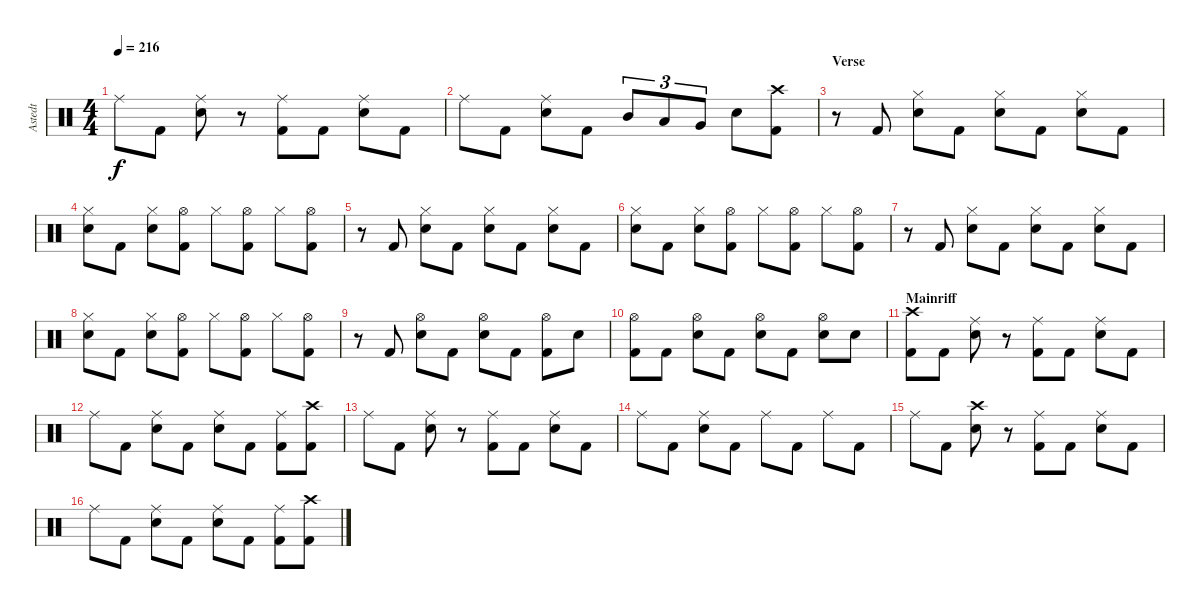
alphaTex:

\track ("Astedt" "Astedt") {instrument percussion}
\staff {score}
\articulation defaults
\ts (4 4)
\tempo 216
\clef neutral
\ks c "Ride (middle)".8{dy f} "Kick (hit) 2".8
("Ride (middle)" "Snare (hit) 2").8 r.8 ("Ride (middle)" "Kick (hit) 2").8 "Kick (hit) 2".8 ("Ride (middle)" "Snare (hit) 2").8 "Kick (hit) 2".8 |
"Ride (middle)".8 "Kick (hit) 2".8 ("Ride (middle)" "Snare (hit) 2").8 "Kick (hit) 2".8 "Mid Tom (hit)".8{tu (3 2)} "Low Tom (hit)".8{tu (3 2)} "Very Low Tom (hit)".8{tu (3 2)} "Snare (hit) 2".8 ("Crash high (hit)" "Kick (hit) 2").8 |
\section ("" "Verse")
r.8 "Kick (hit) 2".8 ("Hi-Hat (closed)" "Snare (hit) 2").8 "Kick (hit) 2".8 ("Hi-Hat (closed)" "Snare (hit) 2").8 "Kick (hit) 2".8 ("Hi-Hat (closed)" "Snare (hit) 2").8 "Kick (hit) 2".8 |
("Hi-Hat (closed)" "Snare (hit) 2").8 "Kick (hit) 2".8 ("Hi-Hat (closed)" "Snare (hit) 2").8 ("Hi-Hat (open)" "Kick (hit) 2").8 "Hi-Hat (closed)".8 ("Hi-Hat (open)" "Kick (hit) 2").8 "Hi-Hat (closed)".8 ("Hi-Hat (open)" "Kick (hit) 2").8 |
r.8 "Kick (hit) 2".8 ("Hi-Hat (closed)" "Snare (hit) 2").8 "Kick (hit) 2".8 ("Hi-Hat (closed)" "Snare (hit) 2").8 "Kick (hit) 2".8 ("Hi-Hat (closed)" "Snare (hit) 2").8 "Kick (hit) 2".8 |
("Hi-Hat (closed)" "Snare (hit) 2").8 "Kick (hit) 2".8 ("Hi-Hat (closed)" "Snare (hit) 2").8 ("Hi-Hat (open)" "Kick (hit) 2").8 "Hi-Hat (closed)".8 ("Hi-Hat (open)" "Kick (hit) 2").8 "Hi-Hat (closed)".8 ("Hi-Hat (open)" "Kick (hit) 2").8 |
r.8 "Kick (hit) 2".8 ("Hi-Hat (closed)" "Snare (hit) 2").8 "Kick (hit) 2".8 ("Hi-Hat (closed)" "Snare (hit) 2").8 "Kick (hit) 2".8 ("Hi-Hat (closed)" "Snare (hit) 2").8 "Kick (hit) 2".8 |
("Hi-Hat (closed)" "Snare (hit) 2").8 "Kick (hit) 2".8 ("Hi-Hat (closed)" "Snare (hit) 2").8 ("Hi-Hat (open)" "Kick (hit) 2").8 "Hi-Hat (closed)".8 ("Hi-Hat (open)" "Kick (hit) 2").8 "Hi-Hat (closed)".8 ("Hi-Hat (open)" "Kick (hit) 2").8 |
r.8 "Kick (hit) 2".8 ("Hi-Hat (open)" "Snare (hit) 2").8 "Kick (hit) 2".8 ("Hi-Hat (open)" "Snare (hit) 2").8 "Kick (hit) 2".8 ("Hi-Hat (open)" "Kick (hit) 2").8 "Snare (hit) 2".8 |
("Hi-Hat (open)" "Kick (hit) 2").8 "Kick (hit) 2".8 ("Hi-Hat (open)" "Snare (hit) 2").8 "Kick (hit) 2".8 ("Hi-Hat (open)" "Snare (hit) 2").8 "Kick (hit) 2".8 ("Hi-Hat (open)" "Snare (hit) 2").8 "Snare (hit) 2".8 |
\section ("" "Mainriff")
("Crash high (hit)" "Kick (hit) 2").8 "Kick (hit) 2".8 ("Ride (middle)" "Snare (hit) 2").8 r.8 ("Ride (middle)" "Kick (hit) 2").8 "Kick (hit) 2".8 ("Ride (middle)" "Snare (hit) 2").8 "Kick (hit) 2".8 |
"Ride (middle)".8 "Kick (hit) 2".8 ("Ride (middle)" "Snare (hit) 2").8 "Kick (hit) 2".8 ("Ride (middle)" "Snare (hit) 2").8 "Kick (hit) 2".8 ("Ride (middle)" "Kick (hit) 2").8 ("Crash high (hit)" "Kick (hit) 2").8 |
"Ride (middle)".8 "Kick (hit) 2".8 ("Ride (middle)" "Snare (hit) 2").8 r.8 ("Ride (middle)" "Kick (hit) 2").8 "Kick (hit) 2".8 ("Ride (middle)" "Snare (hit) 2").8 "Kick (hit) 2".8 |
"Ride (middle)".8 "Kick (hit) 2".8 ("Ride (middle)" "Snare (hit) 2").8 "Kick (hit) 2".8 "Ride (middle)".8 "Kick (hit) 2".8 "Ride (middle)".8 "Kick (hit) 2".8 |
"Ride (middle)".8 "Kick (hit) 2".8 ("Crash high (hit)" "Snare (hit) 2").8 r.8 ("Ride (middle)" "Kick (hit) 2").8 "Kick (hit) 2".8 ("Ride (middle)" "Snare (hit) 2").8 "Kick (hit) 2".8 |
"Ride (middle)".8 "Kick (hit) 2".8 ("Ride (middle)" "Snare (hit) 2").8 "Kick (hit) 2".8 ("Ride (middle)" "Snare (hit) 2").8 "Kick (hit) 2".8 ("Ride (middle)" "Kick (hit) 2").8 ("Crash high (hit)" "Kick (hit) 2").8
